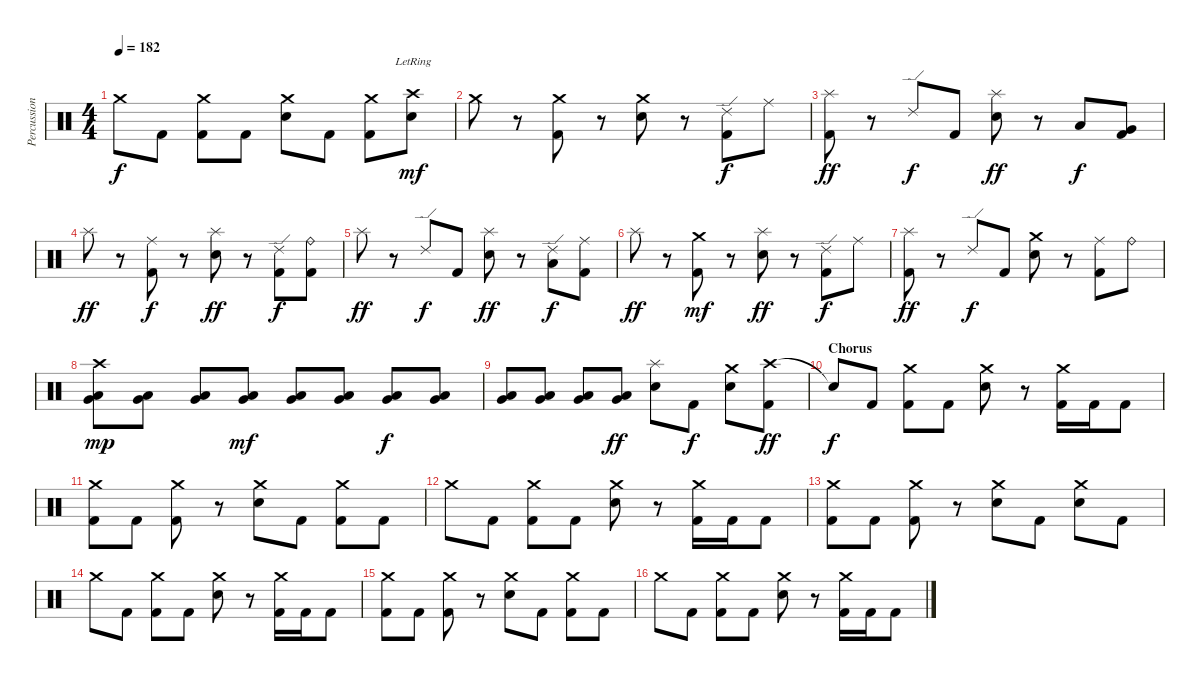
\track ("Percussions" "Percussion") {instrument percussion}
\staff {score}
\articulation defaults
\ts (4 4)
\tempo 182
\clef neutral
\ks c "Crash medium (hit)".8{dy f} "Kick (hit) 2".8
("Crash medium (hit)" "Kick (hit) 2").8 "Kick (hit) 2".8 ("Crash medium (hit)" "Electric Snare (hit)").8 "Kick (hit) 2".8 ("Crash medium (hit)" "Kick (hit) 2").8 ("Crash high (hit)"{lr} "Electric Snare (hit)").8{dy mf} |
"Crash medium (hit)".8 r.8 ("Crash medium (hit)" "Kick (hit) 2").8 r.8 ("Crash medium (hit)" "Electric Snare (hit)").8 r.8 ("Ride (edge) 2" "Kick (hit) 2").8{dy f} "Ride (middle)".8 |
("Splash (hit)" "Kick (hit) 2").8{dy ff} r.8 "Ride (edge) 2".8{dy f} "Kick (hit) 2".8 ("Splash (hit)" "Electric Snare (hit)").8{dy ff} r.8 "Low Tom (hit)".8{dy f} ("Very Low Tom (hit)" "Kick (hit) 2").8 |
"Splash (hit)".8{dy ff} r.8 ("Ride (middle)" "Kick (hit) 2").8{dy f} r.8 ("Splash (hit)" "Electric Snare (hit)").8{dy ff} r.8 ("Ride (edge) 2" "Kick (hit) 2").8{dy f} ("Ride (bell)" "Kick (hit) 2").8 |
"Splash (hit)".8{dy ff} r.8 "Ride (edge) 2".8{dy f} "Kick (hit) 2".8 ("Splash (hit)" "Electric Snare (hit)").8{dy ff} r.8 ("Ride (edge) 2" "Low Tom (hit)").8{dy f} ("Ride (middle)" "Kick (hit) 2").8 |
"Splash (hit)".8{dy ff} r.8 ("Crash medium (hit)" "Kick (hit) 2").8{dy mf} r.8 ("Splash (hit)" "Electric Snare (hit)").8{dy ff} r.8 ("Ride (edge) 2" "Kick (hit) 2").8{dy f} "Ride (middle)".8 |
("Splash (hit)" "Kick (hit) 2").8{dy ff} r.8 "Ride (edge) 2".8{dy f} "Kick (hit) 2".8 ("Crash medium (hit)" "Electric Snare (hit)").8 r.8 ("Ride (middle)" "Kick (hit) 2").8 "Ride (bell)".8 |
("Crash high (hit)" "Very Low Tom (hit)" "Low Tom (hit)").8{dy mp} ("Very Low Tom (hit)" "Low Tom (hit)").8 ("Very Low Tom (hit)" "Low Tom (hit)").8 ("Very Low Tom (hit)" "Low Tom (hit)").8{dy mf} ("Very Low Tom (hit)" "Low Tom (hit)").8 ("Very Low Tom (hit)" "Low Tom (hit)").8 ("Very Low Tom (hit)" "Low Tom (hit)").8{dy f} ("Very Low Tom (hit)" "Low Tom (hit)").8 |
("Very Low Tom (hit)" "Low Tom (hit)").8 ("Very Low Tom (hit)" "Low Tom (hit)").8 ("Very Low Tom (hit)" "Low Tom (hit)").8 ("Very Low Tom (hit)" "Low Tom (hit)").8{dy ff} ("Splash (hit)" "Electric Snare (hit)").8 "Kick (hit) 2".8{dy f} ("Crash medium (hit)" "Electric Snare (hit)").8 ("Crash high (hit)" "Kick (hit) 2").8{dy ff} |
\section ("" "Chorus")
"Snare (hit)"{t}.8{dy f} "Kick (hit) 2".8 ("Crash medium (hit)" "Kick (hit) 2").8 "Kick (hit) 2".8 ("Crash medium (hit)" "Electric Snare (hit)").8 r.8 ("Crash medium (hit)" "Kick (hit) 2").16 "Kick (hit) 2".16 "Kick (hit) 2".8 |
("Crash medium (hit)" "Kick (hit) 2").8 "Kick (hit) 2".8 ("Crash medium (hit)" "Kick (hit) 2").8 r.8 ("Crash medium (hit)" "Electric Snare (hit)").8 "Kick (hit) 2".8 ("Crash medium (hit)" "Kick (hit) 2").8 "Kick (hit) 2".8 |
"Crash medium (hit)".8 "Kick (hit) 2".8 ("Crash medium (hit)" "Kick (hit) 2").8 "Kick (hit) 2".8 ("Crash medium (hit)" "Electric Snare (hit)").8 r.8 ("Crash medium (hit)" "Kick (hit) 2").16 "Kick (hit) 2".16 "Kick (hit) 2".8 |
("Crash medium (hit)" "Kick (hit) 2").8 "Kick (hit) 2".8 ("Crash medium (hit)" "Kick (hit) 2").8 r.8 ("Crash medium (hit)" "Electric Snare (hit)").8 "Kick (hit) 2".8 ("Crash medium (hit)" "Electric Snare (hit)").8 "Kick (hit) 2".8 |
"Crash medium (hit)".8 "Kick (hit) 2".8 ("Crash medium (hit)" "Kick (hit) 2").8 "Kick (hit) 2".8 ("Crash medium (hit)" "Electric Snare (hit)").8 r.8 ("Crash medium (hit)" "Kick (hit) 2").16 "Kick (hit) 2".16 "Kick (hit) 2".8 |
("Crash medium (hit)" "Kick (hit) 2").8 "Kick (hit) 2".8 ("Crash medium (hit)" "Kick (hit) 2").8 r.8 ("Crash medium (hit)" "Electric Snare (hit)").8 "Kick (hit) 2".8 ("Crash medium (hit)" "Kick (hit) 2").8 "Kick (hit) 2".8 |
"Crash medium (hit)".8 "Kick (hit) 2".8 ("Crash medium (hit)" "Kick (hit) 2").8 "Kick (hit) 2".8 ("Crash medium (hit)" "Electric Snare (hit)").8 r.8 ("Crash medium (hit)" "Kick (hit) 2").16 "Kick (hit) 2".16 "Kick (hit) 2".8
